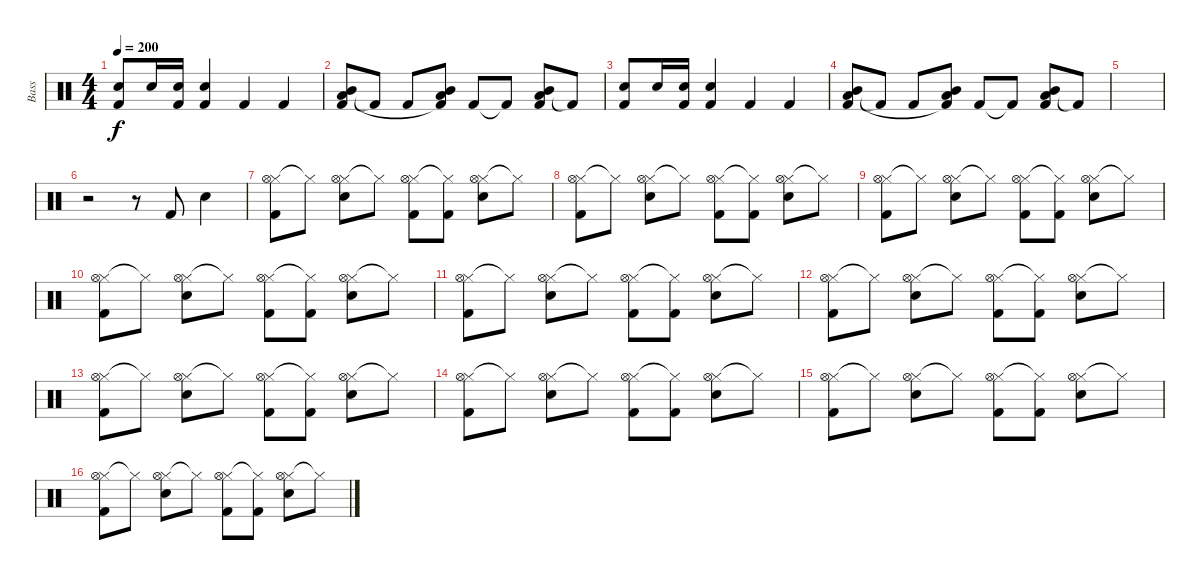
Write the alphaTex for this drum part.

\track ("Bass" "Bass") {instrument percussion}
\staff {score}
\articulation defaults
\ts (4 4)
\tempo 200
\clef neutral
\ks c
("Snare (hit) 2" "Kick (hit) 2").8{dy f} "Snare (hit) 2".16 ("Snare (hit) 2" "Kick (hit) 2").16 ("Snare (hit) 2" "Kick (hit) 2").4 "Kick (hit) 2".4 "Kick (hit) 2".4 |
("Mid Tom (hit)" "Low Floor Tom (hit)" "Kick (hit) 2").8 "Kick (hit) 2"{t}.8 "Kick (hit) 2".8 ("Mid Tom (hit)" "Low Floor Tom (hit)" "Kick (hit) 2"{t}).8 "Kick (hit) 2".8 "Kick (hit) 2"{t}.8 ("Mid Tom (hit)" "Low Floor Tom (hit)" "Kick (hit) 2").8 "Kick (hit) 2"{t}.8 |
("Snare (hit) 2" "Kick (hit) 2").8 "Snare (hit) 2".16 ("Snare (hit) 2" "Kick (hit) 2").16 ("Snare (hit) 2" "Kick (hit) 2").4 "Kick (hit) 2".4 "Kick (hit) 2".4 |
("Mid Tom (hit)" "Low Floor Tom (hit)" "Kick (hit) 2").8 "Kick (hit) 2"{t}.8 "Kick (hit) 2".8 ("Mid Tom (hit)" "Low Floor Tom (hit)" "Kick (hit) 2"{t}).8 "Kick (hit) 2".8 "Kick (hit) 2"{t}.8 ("Mid Tom (hit)" "Low Floor Tom (hit)" "Kick (hit) 2").8 "Kick (hit) 2"{t}.8 |
|
r.2 r.8 "Kick (hit) 2".8 "Snare (hit) 2".4 |
("Hi-Hat (closed)" "Hi-Hat (open)" "Kick (hit) 2").8 "Hi-Hat (closed)"{t}.8 ("Hi-Hat (closed)" "Hi-Hat (open)" "Snare (hit) 2").8 "Hi-Hat (closed)"{t}.8 ("Hi-Hat (closed)" "Hi-Hat (open)" "Kick (hit) 2").8 ("Hi-Hat (closed)"{t} "Kick (hit) 2").8 ("Hi-Hat (closed)" "Hi-Hat (open)" "Snare (hit) 2").8 "Hi-Hat (closed)"{t}.8 |
("Hi-Hat (closed)" "Hi-Hat (open)" "Kick (hit) 2").8 "Hi-Hat (closed)"{t}.8 ("Hi-Hat (closed)" "Hi-Hat (open)" "Snare (hit) 2").8 "Hi-Hat (closed)"{t}.8 ("Hi-Hat (closed)" "Hi-Hat (open)" "Kick (hit) 2").8 ("Hi-Hat (closed)"{t} "Kick (hit) 2").8 ("Hi-Hat (closed)" "Hi-Hat (open)" "Snare (hit) 2").8 "Hi-Hat (closed)"{t}.8 |
("Hi-Hat (closed)" "Hi-Hat (open)" "Kick (hit) 2").8 "Hi-Hat (closed)"{t}.8 ("Hi-Hat (closed)" "Hi-Hat (open)" "Snare (hit) 2").8 "Hi-Hat (closed)"{t}.8 ("Hi-Hat (closed)" "Hi-Hat (open)" "Kick (hit) 2").8 ("Hi-Hat (closed)"{t} "Kick (hit) 2").8 ("Hi-Hat (closed)" "Hi-Hat (open)" "Snare (hit) 2").8 "Hi-Hat (closed)"{t}.8 |
("Hi-Hat (closed)" "Hi-Hat (open)" "Kick (hit) 2").8 "Hi-Hat (closed)"{t}.8 ("Hi-Hat (closed)" "Hi-Hat (open)" "Snare (hit) 2").8 "Hi-Hat (closed)"{t}.8 ("Hi-Hat (closed)" "Hi-Hat (open)" "Kick (hit) 2").8 ("Hi-Hat (closed)"{t} "Kick (hit) 2").8 ("Hi-Hat (closed)" "Hi-Hat (open)" "Snare (hit) 2").8 "Hi-Hat (closed)"{t}.8 |
("Hi-Hat (closed)" "Hi-Hat (open)" "Kick (hit) 2").8 "Hi-Hat (closed)"{t}.8 ("Hi-Hat (closed)" "Hi-Hat (open)" "Snare (hit) 2").8 "Hi-Hat (closed)"{t}.8 ("Hi-Hat (closed)" "Hi-Hat (open)" "Kick (hit) 2").8 ("Hi-Hat (closed)"{t} "Kick (hit) 2").8 ("Hi-Hat (closed)" "Hi-Hat (open)" "Snare (hit) 2").8 "Hi-Hat (closed)"{t}.8 |
("Hi-Hat (closed)" "Hi-Hat (open)" "Kick (hit) 2").8 "Hi-Hat (closed)"{t}.8 ("Hi-Hat (closed)" "Hi-Hat (open)" "Snare (hit) 2").8 "Hi-Hat (closed)"{t}.8 ("Hi-Hat (closed)" "Hi-Hat (open)" "Kick (hit) 2").8 ("Hi-Hat (closed)"{t} "Kick (hit) 2").8 ("Hi-Hat (closed)" "Hi-Hat (open)" "Snare (hit) 2").8 "Hi-Hat (closed)"{t}.8 |
("Hi-Hat (closed)" "Hi-Hat (open)" "Kick (hit) 2").8 "Hi-Hat (closed)"{t}.8 ("Hi-Hat (closed)" "Hi-Hat (open)" "Snare (hit) 2").8 "Hi-Hat (closed)"{t}.8 ("Hi-Hat (closed)" "Hi-Hat (open)" "Kick (hit) 2").8 ("Hi-Hat (closed)"{t} "Kick (hit) 2").8 ("Hi-Hat (closed)" "Hi-Hat (open)" "Snare (hit) 2").8 "Hi-Hat (closed)"{t}.8 |
("Hi-Hat (closed)" "Hi-Hat (open)" "Kick (hit) 2").8 "Hi-Hat (closed)"{t}.8 ("Hi-Hat (closed)" "Hi-Hat (open)" "Snare (hit) 2").8 "Hi-Hat (closed)"{t}.8 ("Hi-Hat (closed)" "Hi-Hat (open)" "Kick (hit) 2").8 ("Hi-Hat (closed)"{t} "Kick (hit) 2").8 ("Hi-Hat (closed)" "Hi-Hat (open)" "Snare (hit) 2").8 "Hi-Hat (closed)"{t}.8 |
("Hi-Hat (closed)" "Hi-Hat (open)" "Kick (hit) 2").8 "Hi-Hat (closed)"{t}.8 ("Hi-Hat (closed)" "Hi-Hat (open)" "Snare (hit) 2").8 "Hi-Hat (closed)"{t}.8 ("Hi-Hat (closed)" "Hi-Hat (open)" "Kick (hit) 2").8 ("Hi-Hat (closed)"{t} "Kick (hit) 2").8 ("Hi-Hat (closed)" "Hi-Hat (open)" "Snare (hit) 2").8 "Hi-Hat (closed)"{t}.8 |
("Hi-Hat (closed)" "Hi-Hat (open)" "Kick (hit) 2").8 "Hi-Hat (closed)"{t}.8 ("Hi-Hat (closed)" "Hi-Hat (open)" "Snare (hit) 2").8 "Hi-Hat (closed)"{t}.8 ("Hi-Hat (closed)" "Hi-Hat (open)" "Kick (hit) 2").8 ("Hi-Hat (closed)"{t} "Kick (hit) 2").8 ("Hi-Hat (closed)" "Hi-Hat (open)" "Snare (hit) 2").8 "Hi-Hat (closed)"{t}.8
